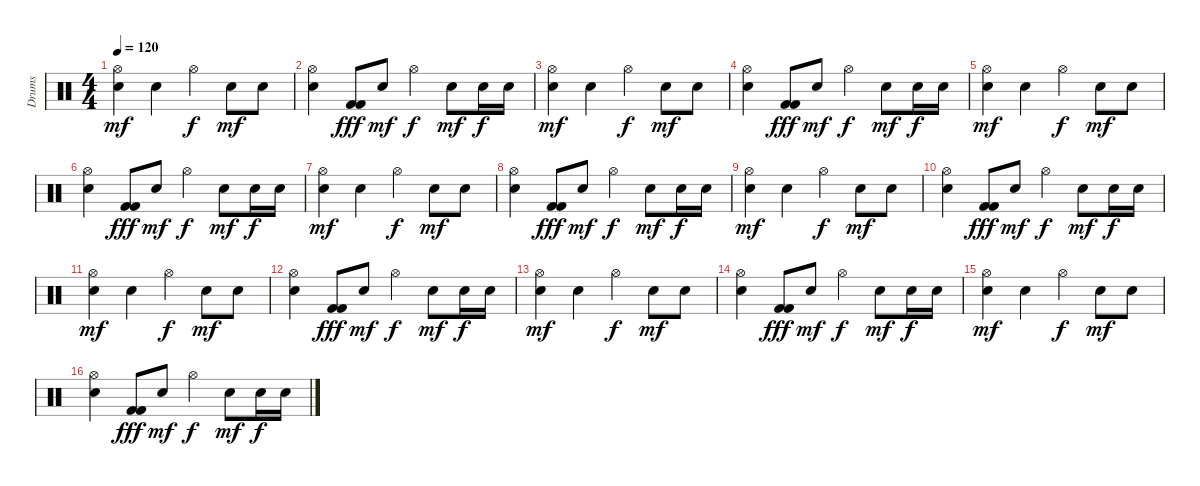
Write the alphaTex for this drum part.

\track ("Drums" "Drums") {instrument percussion}
\staff {score}
\articulation defaults
\ts (4 4)
\tempo 120
\clef neutral
\ks c
("Electric Snare (hit)" "Hi-Hat (open)").4{dy mf} "Electric Snare (hit)".4 "Hi-Hat (open)".4{dy f} "Electric Snare (hit)".8{dy mf} "Electric Snare (hit)".8 |
("Electric Snare (hit)" "Hi-Hat (open)").4 ("Kick (hit) 2" "Kick (hit) 2").8{dy fff} "Electric Snare (hit)".8{dy mf} "Hi-Hat (open)".4{dy f} "Electric Snare (hit)".8{dy mf} "Electric Snare (hit)".16{dy f} "Electric Snare (hit)".16 |
("Electric Snare (hit)" "Hi-Hat (open)").4{dy mf} "Electric Snare (hit)".4 "Hi-Hat (open)".4{dy f} "Electric Snare (hit)".8{dy mf} "Electric Snare (hit)".8 |
("Electric Snare (hit)" "Hi-Hat (open)").4 ("Kick (hit) 2" "Kick (hit) 2").8{dy fff} "Electric Snare (hit)".8{dy mf} "Hi-Hat (open)".4{dy f} "Electric Snare (hit)".8{dy mf} "Electric Snare (hit)".16{dy f} "Electric Snare (hit)".16 |
("Electric Snare (hit)" "Hi-Hat (open)").4{dy mf} "Electric Snare (hit)".4 "Hi-Hat (open)".4{dy f} "Electric Snare (hit)".8{dy mf} "Electric Snare (hit)".8 |
("Electric Snare (hit)" "Hi-Hat (open)").4 ("Kick (hit) 2" "Kick (hit) 2").8{dy fff} "Electric Snare (hit)".8{dy mf} "Hi-Hat (open)".4{dy f} "Electric Snare (hit)".8{dy mf} "Electric Snare (hit)".16{dy f} "Electric Snare (hit)".16 |
("Electric Snare (hit)" "Hi-Hat (open)").4{dy mf} "Electric Snare (hit)".4 "Hi-Hat (open)".4{dy f} "Electric Snare (hit)".8{dy mf} "Electric Snare (hit)".8 |
("Electric Snare (hit)" "Hi-Hat (open)").4 ("Kick (hit) 2" "Kick (hit) 2").8{dy fff} "Electric Snare (hit)".8{dy mf} "Hi-Hat (open)".4{dy f} "Electric Snare (hit)".8{dy mf} "Electric Snare (hit)".16{dy f} "Electric Snare (hit)".16 |
("Electric Snare (hit)" "Hi-Hat (open)").4{dy mf} "Electric Snare (hit)".4 "Hi-Hat (open)".4{dy f} "Electric Snare (hit)".8{dy mf} "Electric Snare (hit)".8 |
("Electric Snare (hit)" "Hi-Hat (open)").4 ("Kick (hit) 2" "Kick (hit) 2").8{dy fff} "Electric Snare (hit)".8{dy mf} "Hi-Hat (open)".4{dy f} "Electric Snare (hit)".8{dy mf} "Electric Snare (hit)".16{dy f} "Electric Snare (hit)".16 |
("Electric Snare (hit)" "Hi-Hat (open)").4{dy mf} "Electric Snare (hit)".4 "Hi-Hat (open)".4{dy f} "Electric Snare (hit)".8{dy mf} "Electric Snare (hit)".8 |
("Electric Snare (hit)" "Hi-Hat (open)").4 ("Kick (hit) 2" "Kick (hit) 2").8{dy fff} "Electric Snare (hit)".8{dy mf} "Hi-Hat (open)".4{dy f} "Electric Snare (hit)".8{dy mf} "Electric Snare (hit)".16{dy f} "Electric Snare (hit)".16 |
("Electric Snare (hit)" "Hi-Hat (open)").4{dy mf} "Electric Snare (hit)".4 "Hi-Hat (open)".4{dy f} "Electric Snare (hit)".8{dy mf} "Electric Snare (hit)".8 |
("Electric Snare (hit)" "Hi-Hat (open)").4 ("Kick (hit) 2" "Kick (hit) 2").8{dy fff} "Electric Snare (hit)".8{dy mf} "Hi-Hat (open)".4{dy f} "Electric Snare (hit)".8{dy mf} "Electric Snare (hit)".16{dy f} "Electric Snare (hit)".16 |
("Electric Snare (hit)" "Hi-Hat (open)").4{dy mf} "Electric Snare (hit)".4 "Hi-Hat (open)".4{dy f} "Electric Snare (hit)".8{dy mf} "Electric Snare (hit)".8 |
("Electric Snare (hit)" "Hi-Hat (open)").4 ("Kick (hit) 2" "Kick (hit) 2").8{dy fff} "Electric Snare (hit)".8{dy mf} "Hi-Hat (open)".4{dy f} "Electric Snare (hit)".8{dy mf} "Electric Snare (hit)".16{dy f} "Electric Snare (hit)".16
